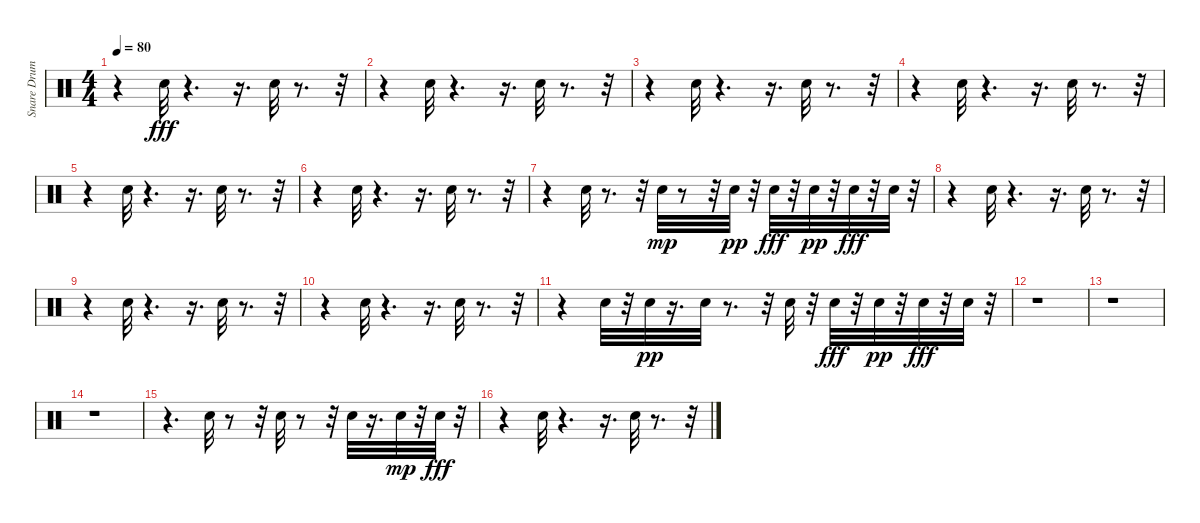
\track ("Snare Drum" "Snare Drum") {instrument percussion}
\staff {score}
\articulation defaults
\ts (4 4)
\tempo 80
\clef neutral
\ks c
r.4{dy fff} "Snare (hit) 2".32 r.4{d} r.16{d} "Snare (hit) 2".32 r.8{d} r.32 |
r.4 "Snare (hit) 2".32 r.4{d} r.16{d} "Snare (hit) 2".32 r.8{d} r.32 |
r.4 "Snare (hit) 2".32 r.4{d} r.16{d} "Snare (hit) 2".32 r.8{d} r.32 |
r.4 "Snare (hit) 2".32 r.4{d} r.16{d} "Snare (hit) 2".32 r.8{d} r.32 |
r.4 "Snare (hit) 2".32 r.4{d} r.16{d} "Snare (hit) 2".32 r.8{d} r.32 |
r.4 "Snare (hit) 2".32 r.4{d} r.16{d} "Snare (hit) 2".32 r.8{d} r.32 |
r.4 "Snare (hit) 2".32 r.8{d} r.32 "Snare (hit) 2".32{dy mp} r.8 r.32 "Snare (hit) 2".32{dy pp} r.32 "Snare (hit) 2".32{dy fff} r.32 "Snare (hit) 2".32{dy pp} r.32 "Snare (hit) 2".32{dy fff} r.32 "Snare (hit) 2".32 r.32 |
r.4 "Snare (hit) 2".32 r.4{d} r.16{d} "Snare (hit) 2".32 r.8{d} r.32 |
r.4 "Snare (hit) 2".32 r.4{d} r.16{d} "Snare (hit) 2".32 r.8{d} r.32 |
r.4 "Snare (hit) 2".32 r.4{d} r.16{d} "Snare (hit) 2".32 r.8{d} r.32 |
r.4 "Snare (hit) 2".32 r.32 "Snare (hit) 2".32{dy pp} r.16{d} "Snare (hit) 2".32 r.8{d} r.32 "Snare (hit) 2".32 r.32 "Snare (hit) 2".32{dy fff} r.32 "Snare (hit) 2".32{dy pp} r.32 "Snare (hit) 2".32{dy fff} r.32 "Snare (hit) 2".32 r.32 |
r.1 |
r.1 |
r.1 |
r.4{d} "Snare (hit) 2".32 r.8 r.32 "Snare (hit) 2".32 r.8 r.32 "Snare (hit) 2".32 r.16{d} "Snare (hit) 2".32{dy mp} r.32 "Snare (hit) 2".32{dy fff} r.32 |
r.4 "Snare (hit) 2".32 r.4{d} r.16{d} "Snare (hit) 2".32 r.8{d} r.32
